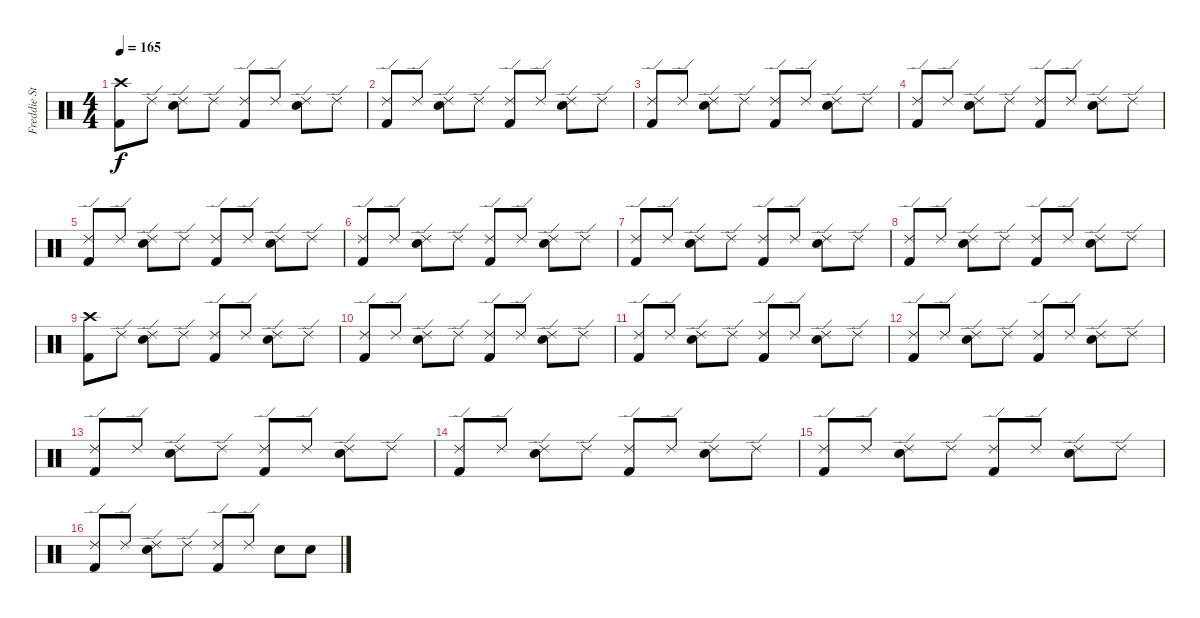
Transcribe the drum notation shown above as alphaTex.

\track ("Freddie Strauks" "Freddie St") {instrument percussion}
\staff {score}
\articulation defaults
\ts (4 4)
\tempo 165
\clef neutral
\ks c
("Crash high (hit)" "Kick (hit) 2").8{dy f} "Ride (edge) 2".8 ("Ride (edge) 2" "Snare (hit) 2").8 "Ride (edge) 2".8 ("Ride (edge) 2" "Kick (hit) 2").8 "Ride (edge) 2".8 ("Ride (edge) 2" "Snare (hit) 2").8 "Ride (edge) 2".8 |
("Ride (edge) 2" "Kick (hit) 2").8 "Ride (edge) 2".8 ("Ride (edge) 2" "Snare (hit) 2").8 "Ride (edge) 2".8 ("Ride (edge) 2" "Kick (hit) 2").8 "Ride (edge) 2".8 ("Ride (edge) 2" "Snare (hit) 2").8 "Ride (edge) 2".8 |
("Ride (edge) 2" "Kick (hit) 2").8 "Ride (edge) 2".8 ("Ride (edge) 2" "Snare (hit) 2").8 "Ride (edge) 2".8 ("Ride (edge) 2" "Kick (hit) 2").8 "Ride (edge) 2".8 ("Ride (edge) 2" "Snare (hit) 2").8 "Ride (edge) 2".8 |
("Ride (edge) 2" "Kick (hit) 2").8 "Ride (edge) 2".8 ("Ride (edge) 2" "Snare (hit) 2").8 "Ride (edge) 2".8 ("Ride (edge) 2" "Kick (hit) 2").8 "Ride (edge) 2".8 ("Ride (edge) 2" "Snare (hit) 2").8 "Ride (edge) 2".8 |
("Ride (edge) 2" "Kick (hit) 2").8 "Ride (edge) 2".8 ("Ride (edge) 2" "Snare (hit) 2").8 "Ride (edge) 2".8 ("Ride (edge) 2" "Kick (hit) 2").8 "Ride (edge) 2".8 ("Ride (edge) 2" "Snare (hit) 2").8 "Ride (edge) 2".8 |
("Ride (edge) 2" "Kick (hit) 2").8 "Ride (edge) 2".8 ("Ride (edge) 2" "Snare (hit) 2").8 "Ride (edge) 2".8 ("Ride (edge) 2" "Kick (hit) 2").8 "Ride (edge) 2".8 ("Ride (edge) 2" "Snare (hit) 2").8 "Ride (edge) 2".8 |
("Ride (edge) 2" "Kick (hit) 2").8 "Ride (edge) 2".8 ("Ride (edge) 2" "Snare (hit) 2").8 "Ride (edge) 2".8 ("Ride (edge) 2" "Kick (hit) 2").8 "Ride (edge) 2".8 ("Ride (edge) 2" "Snare (hit) 2").8 "Ride (edge) 2".8 |
("Ride (edge) 2" "Kick (hit) 2").8 "Ride (edge) 2".8 ("Ride (edge) 2" "Snare (hit) 2").8 "Ride (edge) 2".8 ("Ride (edge) 2" "Kick (hit) 2").8 "Ride (edge) 2".8 ("Ride (edge) 2" "Snare (hit) 2").8 "Ride (edge) 2".8 |
("Crash high (hit)" "Kick (hit) 2").8 "Ride (edge) 2".8 ("Ride (edge) 2" "Snare (hit) 2").8 "Ride (edge) 2".8 ("Ride (edge) 2" "Kick (hit) 2").8 "Ride (edge) 2".8 ("Ride (edge) 2" "Snare (hit) 2").8 "Ride (edge) 2".8 |
("Ride (edge) 2" "Kick (hit) 2").8 "Ride (edge) 2".8 ("Ride (edge) 2" "Snare (hit) 2").8 "Ride (edge) 2".8 ("Ride (edge) 2" "Kick (hit) 2").8 "Ride (edge) 2".8 ("Ride (edge) 2" "Snare (hit) 2").8 "Ride (edge) 2".8 |
("Ride (edge) 2" "Kick (hit) 2").8 "Ride (edge) 2".8 ("Ride (edge) 2" "Snare (hit) 2").8 "Ride (edge) 2".8 ("Ride (edge) 2" "Kick (hit) 2").8 "Ride (edge) 2".8 ("Ride (edge) 2" "Snare (hit) 2").8 "Ride (edge) 2".8 |
("Ride (edge) 2" "Kick (hit) 2").8 "Ride (edge) 2".8 ("Ride (edge) 2" "Snare (hit) 2").8 "Ride (edge) 2".8 ("Ride (edge) 2" "Kick (hit) 2").8 "Ride (edge) 2".8 ("Ride (edge) 2" "Snare (hit) 2").8 "Ride (edge) 2".8 |
("Ride (edge) 2" "Kick (hit) 2").8 "Ride (edge) 2".8 ("Ride (edge) 2" "Snare (hit) 2").8 "Ride (edge) 2".8 ("Ride (edge) 2" "Kick (hit) 2").8 "Ride (edge) 2".8 ("Ride (edge) 2" "Snare (hit) 2").8 "Ride (edge) 2".8 |
("Ride (edge) 2" "Kick (hit) 2").8 "Ride (edge) 2".8 ("Ride (edge) 2" "Snare (hit) 2").8 "Ride (edge) 2".8 ("Ride (edge) 2" "Kick (hit) 2").8 "Ride (edge) 2".8 ("Ride (edge) 2" "Snare (hit) 2").8 "Ride (edge) 2".8 |
("Ride (edge) 2" "Kick (hit) 2").8 "Ride (edge) 2".8 ("Ride (edge) 2" "Snare (hit) 2").8 "Ride (edge) 2".8 ("Ride (edge) 2" "Kick (hit) 2").8 "Ride (edge) 2".8 ("Ride (edge) 2" "Snare (hit) 2").8 "Ride (edge) 2".8 |
("Ride (edge) 2" "Kick (hit) 2").8 "Ride (edge) 2".8 ("Ride (edge) 2" "Snare (hit) 2").8 "Ride (edge) 2".8 ("Ride (edge) 2" "Kick (hit) 2").8 "Ride (edge) 2".8 "Snare (hit) 2".8 "Snare (hit) 2".8
